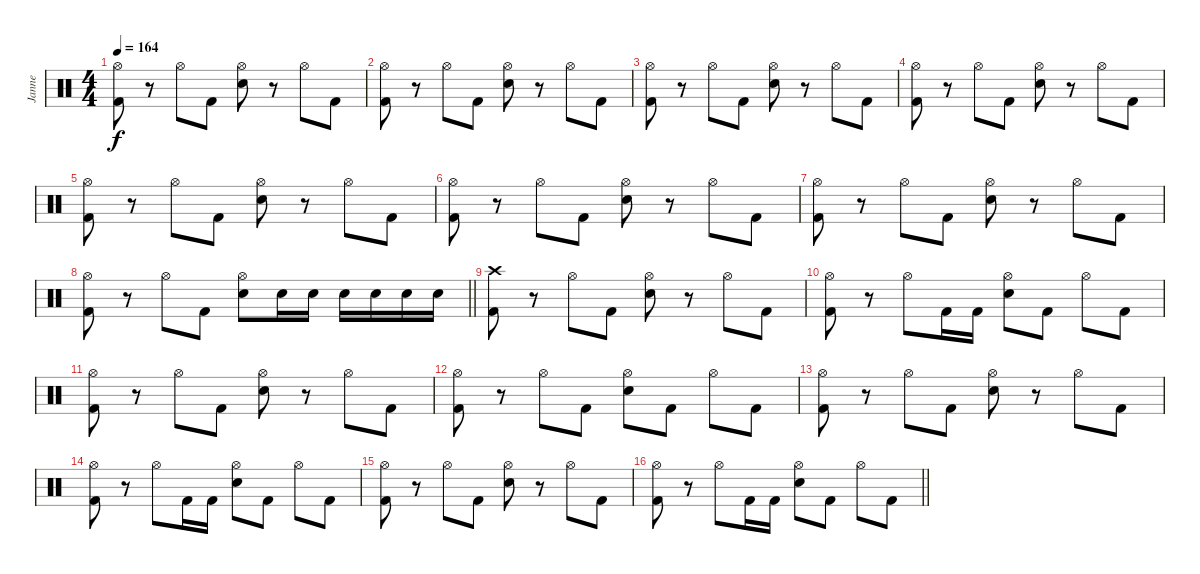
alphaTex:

\track ("Janne" "Janne") {instrument percussion}
\staff {score}
\articulation defaults
\ts (4 4)
\tempo 164
\clef neutral
\ks c
("Hi-Hat (open)" "Kick (hit) 2").8{dy f} r.8 "Hi-Hat (open)".8 "Kick (hit) 2".8 ("Hi-Hat (open)" "Electric Snare (hit)").8 r.8 "Hi-Hat (open)".8 "Kick (hit) 2".8 |
("Hi-Hat (open)" "Kick (hit) 2").8 r.8 "Hi-Hat (open)".8 "Kick (hit) 2".8 ("Hi-Hat (open)" "Electric Snare (hit)").8 r.8 "Hi-Hat (open)".8 "Kick (hit) 2".8 |
("Hi-Hat (open)" "Kick (hit) 2").8 r.8 "Hi-Hat (open)".8 "Kick (hit) 2".8 ("Hi-Hat (open)" "Electric Snare (hit)").8 r.8 "Hi-Hat (open)".8 "Kick (hit) 2".8 |
("Hi-Hat (open)" "Kick (hit) 2").8 r.8 "Hi-Hat (open)".8 "Kick (hit) 2".8 ("Hi-Hat (open)" "Electric Snare (hit)").8 r.8 "Hi-Hat (open)".8 "Kick (hit) 2".8 |
("Hi-Hat (open)" "Kick (hit) 2").8 r.8 "Hi-Hat (open)".8 "Kick (hit) 2".8 ("Hi-Hat (open)" "Electric Snare (hit)").8 r.8 "Hi-Hat (open)".8 "Kick (hit) 2".8 |
("Hi-Hat (open)" "Kick (hit) 2").8 r.8 "Hi-Hat (open)".8 "Kick (hit) 2".8 ("Hi-Hat (open)" "Electric Snare (hit)").8 r.8 "Hi-Hat (open)".8 "Kick (hit) 2".8 |
("Hi-Hat (open)" "Kick (hit) 2").8 r.8 "Hi-Hat (open)".8 "Kick (hit) 2".8 ("Hi-Hat (open)" "Electric Snare (hit)").8 r.8 "Hi-Hat (open)".8 "Kick (hit) 2".8 |
\barLineRight lightlight
("Hi-Hat (open)" "Kick (hit) 2").8 r.8 "Hi-Hat (open)".8 "Kick (hit) 2".8 ("Hi-Hat (open)" "Electric Snare (hit)").8 "Electric Snare (hit)".16 "Electric Snare (hit)".16 "Electric Snare (hit)".16 "Electric Snare (hit)".16 "Electric Snare (hit)".16 "Electric Snare (hit)".16 |
("Crash high (hit)" "Kick (hit) 2").8 r.8 "Hi-Hat (open)".8 "Kick (hit) 2".8 ("Hi-Hat (open)" "Electric Snare (hit)").8 r.8 "Hi-Hat (open)".8 "Kick (hit) 2".8 |
("Hi-Hat (open)" "Kick (hit) 2").8 r.8 "Hi-Hat (open)".8 "Kick (hit) 2".16 "Kick (hit) 2".16 ("Hi-Hat (open)" "Electric Snare (hit)").8 "Kick (hit) 2".8 "Hi-Hat (open)".8 "Kick (hit) 2".8 |
("Hi-Hat (open)" "Kick (hit) 2").8 r.8 "Hi-Hat (open)".8 "Kick (hit) 2".8 ("Hi-Hat (open)" "Electric Snare (hit)").8 r.8 "Hi-Hat (open)".8 "Kick (hit) 2".8 |
("Hi-Hat (open)" "Kick (hit) 2").8 r.8 "Hi-Hat (open)".8 "Kick (hit) 2".8 ("Hi-Hat (open)" "Electric Snare (hit)").8 "Kick (hit) 2".8 "Hi-Hat (open)".8 "Kick (hit) 2".8 |
("Hi-Hat (open)" "Kick (hit) 2").8 r.8 "Hi-Hat (open)".8 "Kick (hit) 2".8 ("Hi-Hat (open)" "Electric Snare (hit)").8 r.8 "Hi-Hat (open)".8 "Kick (hit) 2".8 |
("Hi-Hat (open)" "Kick (hit) 2").8 r.8 "Hi-Hat (open)".8 "Kick (hit) 2".16 "Kick (hit) 2".16 ("Hi-Hat (open)" "Electric Snare (hit)").8 "Kick (hit) 2".8 "Hi-Hat (open)".8 "Kick (hit) 2".8 |
("Hi-Hat (open)" "Kick (hit) 2").8 r.8 "Hi-Hat (open)".8 "Kick (hit) 2".8 ("Hi-Hat (open)" "Electric Snare (hit)").8 r.8 "Hi-Hat (open)".8 "Kick (hit) 2".8 |
\barLineRight lightlight
("Hi-Hat (open)" "Kick (hit) 2").8 r.8 "Hi-Hat (open)".8 "Kick (hit) 2".16 "Kick (hit) 2".16 ("Hi-Hat (open)" "Electric Snare (hit)").8 "Kick (hit) 2".8 "Hi-Hat (open)".8 "Kick (hit) 2".8
